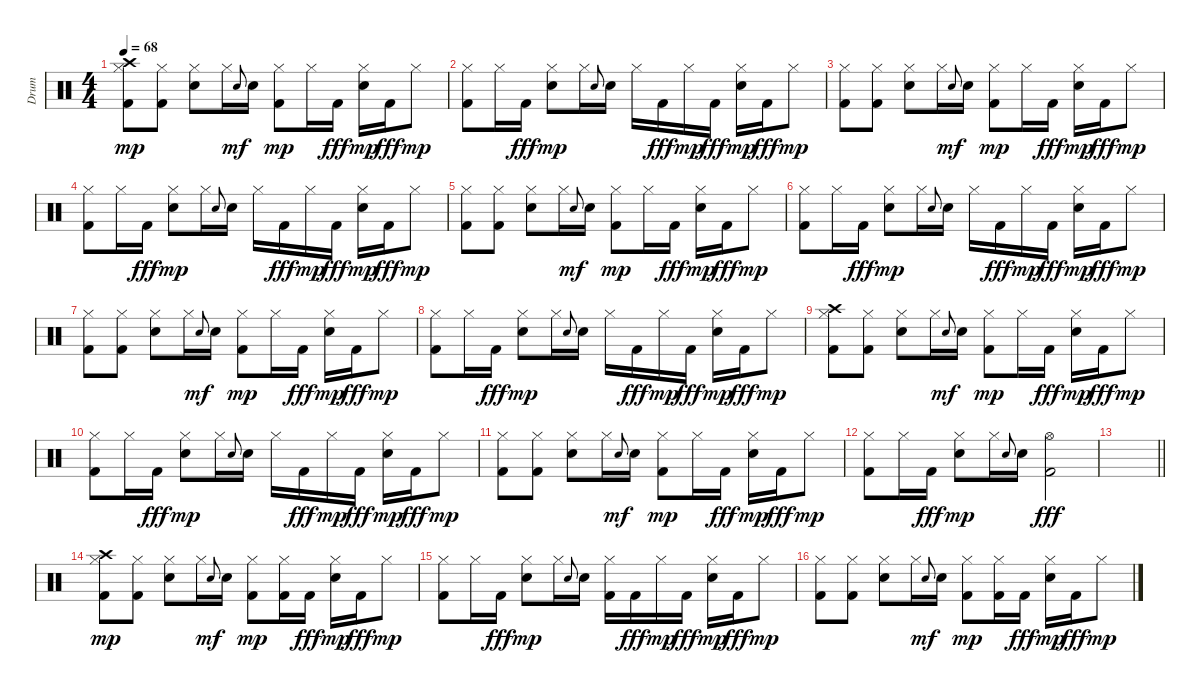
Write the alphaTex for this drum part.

\track ("Drum" "Drum") {instrument percussion}
\staff {score}
\articulation defaults
\ts (4 4)
\tempo 68
\clef neutral
\ks c
("Kick (hit) 2" "Hi-Hat (closed)" "Crash high (hit)").8{dy mp} ("Kick (hit) 2" "Hi-Hat (closed)").8 ("Electric Snare (hit)" "Hi-Hat (closed)").8 "Hi-Hat (closed)".16 "Electric Snare (hit)".8{gr onbeat dy mf} "Electric Snare (hit)".16 ("Kick (hit) 2" "Hi-Hat (closed)").8{dy mp} "Hi-Hat (closed)".16 "Kick (hit) 2".16{dy fff} ("Electric Snare (hit)" "Hi-Hat (closed)").16{dy mp} "Kick (hit) 2".16{dy fff} "Hi-Hat (closed)".8{dy mp} |
("Kick (hit) 2" "Hi-Hat (closed)").8 "Hi-Hat (closed)".16 "Kick (hit) 2".16{dy fff} ("Electric Snare (hit)" "Hi-Hat (closed)").8{dy mp} "Hi-Hat (closed)".16 "Electric Snare (hit)".8{gr onbeat} "Electric Snare (hit)".16 "Hi-Hat (closed)".16 "Kick (hit) 2".16{dy fff} "Hi-Hat (closed)".16{dy mp} "Kick (hit) 2".16{dy fff} ("Electric Snare (hit)" "Hi-Hat (closed)").16{dy mp} "Kick (hit) 2".16{dy fff} "Hi-Hat (closed)".8{dy mp} |
("Kick (hit) 2" "Hi-Hat (closed)").8 ("Kick (hit) 2" "Hi-Hat (closed)").8 ("Electric Snare (hit)" "Hi-Hat (closed)").8 "Hi-Hat (closed)".16 "Electric Snare (hit)".8{gr onbeat dy mf} "Electric Snare (hit)".16 ("Kick (hit) 2" "Hi-Hat (closed)").8{dy mp} "Hi-Hat (closed)".16 "Kick (hit) 2".16{dy fff} ("Electric Snare (hit)" "Hi-Hat (closed)").16{dy mp} "Kick (hit) 2".16{dy fff} "Hi-Hat (closed)".8{dy mp} |
("Kick (hit) 2" "Hi-Hat (closed)").8 "Hi-Hat (closed)".16 "Kick (hit) 2".16{dy fff} ("Electric Snare (hit)" "Hi-Hat (closed)").8{dy mp} "Hi-Hat (closed)".16 "Electric Snare (hit)".8{gr onbeat} "Electric Snare (hit)".16 "Hi-Hat (closed)".16 "Kick (hit) 2".16{dy fff} "Hi-Hat (closed)".16{dy mp} "Kick (hit) 2".16{dy fff} ("Electric Snare (hit)" "Hi-Hat (closed)").16{dy mp} "Kick (hit) 2".16{dy fff} "Hi-Hat (closed)".8{dy mp} |
("Kick (hit) 2" "Hi-Hat (closed)").8 ("Kick (hit) 2" "Hi-Hat (closed)").8 ("Electric Snare (hit)" "Hi-Hat (closed)").8 "Hi-Hat (closed)".16 "Electric Snare (hit)".8{gr onbeat dy mf} "Electric Snare (hit)".16 ("Kick (hit) 2" "Hi-Hat (closed)").8{dy mp} "Hi-Hat (closed)".16 "Kick (hit) 2".16{dy fff} ("Electric Snare (hit)" "Hi-Hat (closed)").16{dy mp} "Kick (hit) 2".16{dy fff} "Hi-Hat (closed)".8{dy mp} |
("Kick (hit) 2" "Hi-Hat (closed)").8 "Hi-Hat (closed)".16 "Kick (hit) 2".16{dy fff} ("Electric Snare (hit)" "Hi-Hat (closed)").8{dy mp} "Hi-Hat (closed)".16 "Electric Snare (hit)".8{gr onbeat} "Electric Snare (hit)".16 "Hi-Hat (closed)".16 "Kick (hit) 2".16{dy fff} "Hi-Hat (closed)".16{dy mp} "Kick (hit) 2".16{dy fff} ("Electric Snare (hit)" "Hi-Hat (closed)").16{dy mp} "Kick (hit) 2".16{dy fff} "Hi-Hat (closed)".8{dy mp} |
("Kick (hit) 2" "Hi-Hat (closed)").8 ("Kick (hit) 2" "Hi-Hat (closed)").8 ("Electric Snare (hit)" "Hi-Hat (closed)").8 "Hi-Hat (closed)".16 "Electric Snare (hit)".8{gr onbeat dy mf} "Electric Snare (hit)".16 ("Kick (hit) 2" "Hi-Hat (closed)").8{dy mp} "Hi-Hat (closed)".16 "Kick (hit) 2".16{dy fff} ("Electric Snare (hit)" "Hi-Hat (closed)").16{dy mp} "Kick (hit) 2".16{dy fff} "Hi-Hat (closed)".8{dy mp} |
("Kick (hit) 2" "Hi-Hat (closed)").8 "Hi-Hat (closed)".16 "Kick (hit) 2".16{dy fff} ("Electric Snare (hit)" "Hi-Hat (closed)").8{dy mp} "Hi-Hat (closed)".16 "Electric Snare (hit)".8{gr onbeat} "Electric Snare (hit)".16 "Hi-Hat (closed)".16 "Kick (hit) 2".16{dy fff} "Hi-Hat (closed)".16{dy mp} "Kick (hit) 2".16{dy fff} ("Electric Snare (hit)" "Hi-Hat (closed)").16{dy mp} "Kick (hit) 2".16{dy fff} "Hi-Hat (closed)".8{dy mp} |
("Kick (hit) 2" "Hi-Hat (closed)" "Crash high (hit)").8 ("Kick (hit) 2" "Hi-Hat (closed)").8 ("Electric Snare (hit)" "Hi-Hat (closed)").8 "Hi-Hat (closed)".16 "Electric Snare (hit)".8{gr onbeat dy mf} "Electric Snare (hit)".16 ("Kick (hit) 2" "Hi-Hat (closed)").8{dy mp} "Hi-Hat (closed)".16 "Kick (hit) 2".16{dy fff} ("Electric Snare (hit)" "Hi-Hat (closed)").16{dy mp} "Kick (hit) 2".16{dy fff} "Hi-Hat (closed)".8{dy mp} |
("Kick (hit) 2" "Hi-Hat (closed)").8 "Hi-Hat (closed)".16 "Kick (hit) 2".16{dy fff} ("Electric Snare (hit)" "Hi-Hat (closed)").8{dy mp} "Hi-Hat (closed)".16 "Electric Snare (hit)".8{gr onbeat} "Electric Snare (hit)".16 "Hi-Hat (closed)".16 "Kick (hit) 2".16{dy fff} "Hi-Hat (closed)".16{dy mp} "Kick (hit) 2".16{dy fff} ("Electric Snare (hit)" "Hi-Hat (closed)").16{dy mp} "Kick (hit) 2".16{dy fff} "Hi-Hat (closed)".8{dy mp} |
("Kick (hit) 2" "Hi-Hat (closed)").8 ("Kick (hit) 2" "Hi-Hat (closed)").8 ("Electric Snare (hit)" "Hi-Hat (closed)").8 "Hi-Hat (closed)".16 "Electric Snare (hit)".8{gr onbeat dy mf} "Electric Snare (hit)".16 ("Kick (hit) 2" "Hi-Hat (closed)").8{dy mp} "Hi-Hat (closed)".16 "Kick (hit) 2".16{dy fff} ("Electric Snare (hit)" "Hi-Hat (closed)").16{dy mp} "Kick (hit) 2".16{dy fff} "Hi-Hat (closed)".8{dy mp} |
("Kick (hit) 2" "Hi-Hat (closed)").8 "Hi-Hat (closed)".16 "Kick (hit) 2".16{dy fff} ("Electric Snare (hit)" "Hi-Hat (closed)").8{dy mp} "Hi-Hat (closed)".16 "Electric Snare (hit)".8{gr onbeat} "Electric Snare (hit)".16 ("Kick (hit) 2" "Hi-Hat (open)").2{dy fff} |
\barLineRight lightlight
|
("Kick (hit) 2" "Hi-Hat (closed)" "Crash high (hit)").8{dy mp} ("Kick (hit) 2" "Hi-Hat (closed)").8 ("Electric Snare (hit)" "Hi-Hat (closed)").8 "Hi-Hat (closed)".16 "Electric Snare (hit)".8{gr onbeat dy mf} "Electric Snare (hit)".16 ("Kick (hit) 2" "Hi-Hat (closed)").8{dy mp} ("Kick (hit) 2" "Hi-Hat (closed)").16 "Kick (hit) 2".16{dy fff} ("Electric Snare (hit)" "Hi-Hat (closed)").16{dy mp} "Kick (hit) 2".16{dy fff} "Hi-Hat (closed)".8{dy mp} |
("Kick (hit) 2" "Hi-Hat (closed)").8 "Hi-Hat (closed)".16 "Kick (hit) 2".16{dy fff} ("Electric Snare (hit)" "Hi-Hat (closed)").8{dy mp} "Hi-Hat (closed)".16 "Electric Snare (hit)".8{gr onbeat} "Electric Snare (hit)".16 ("Kick (hit) 2" "Hi-Hat (closed)").16 "Kick (hit) 2".16{dy fff} "Hi-Hat (closed)".16{dy mp} "Kick (hit) 2".16{dy fff} ("Electric Snare (hit)" "Hi-Hat (closed)").16{dy mp} "Kick (hit) 2".16{dy fff} "Hi-Hat (closed)".8{dy mp} |
("Kick (hit) 2" "Hi-Hat (closed)").8 ("Kick (hit) 2" "Hi-Hat (closed)").8 ("Electric Snare (hit)" "Hi-Hat (closed)").8 "Hi-Hat (closed)".16 "Electric Snare (hit)".8{gr onbeat dy mf} "Electric Snare (hit)".16 ("Kick (hit) 2" "Hi-Hat (closed)").8{dy mp} ("Kick (hit) 2" "Hi-Hat (closed)").16 "Kick (hit) 2".16{dy fff} ("Electric Snare (hit)" "Hi-Hat (closed)").16{dy mp} "Kick (hit) 2".16{dy fff} "Hi-Hat (closed)".8{dy mp}
